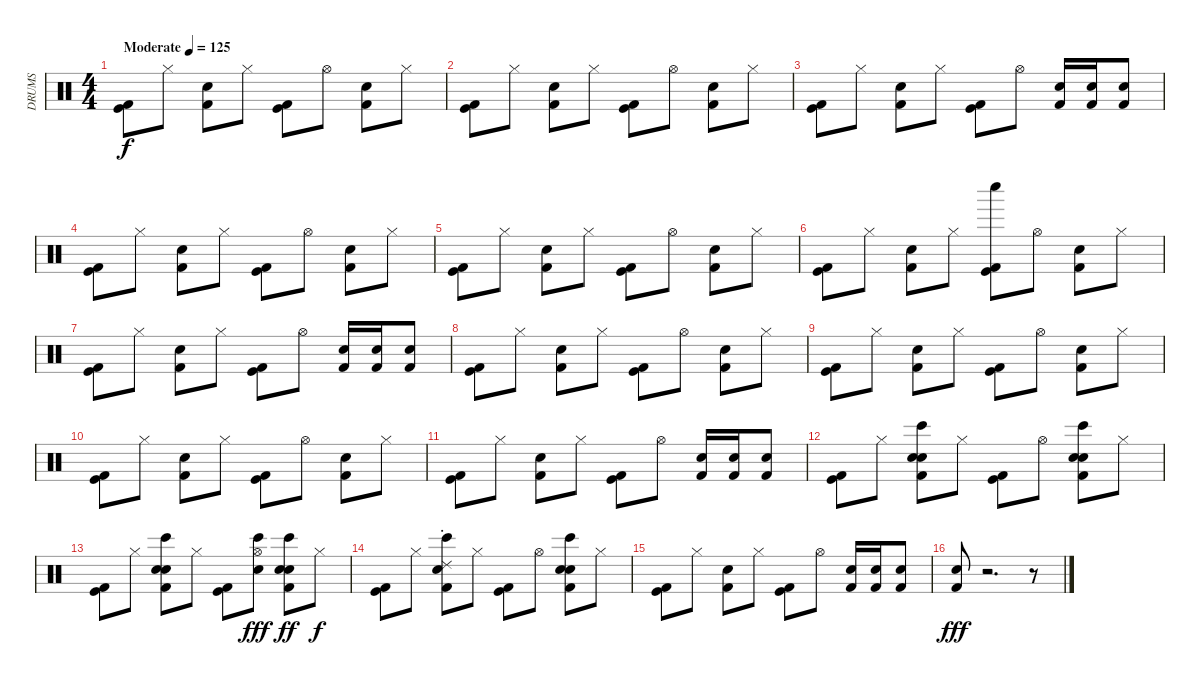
\track ("DRUMS" "DRUMS") {instrument percussion}
\staff {score}
\articulation defaults
\ts (4 4)
\tempo (125 "Moderate")
\clef neutral
\ks c
("Kick (hit) 2" "Kick (hit)").8{dy f} "Hi-Hat (closed)".8 ("Electric Snare (hit)" "Kick (hit) 2").8 "Hi-Hat (closed)".8 ("Kick (hit) 2" "Kick (hit)").8 "Hi-Hat (open)".8 ("Electric Snare (hit)" "Kick (hit) 2").8 "Hi-Hat (closed)".8 |
("Kick (hit) 2" "Kick (hit)").8 "Hi-Hat (closed)".8 ("Electric Snare (hit)" "Kick (hit) 2").8 "Hi-Hat (closed)".8 ("Kick (hit) 2" "Kick (hit)").8 "Hi-Hat (open)".8 ("Electric Snare (hit)" "Kick (hit) 2").8 "Hi-Hat (closed)".8 |
("Kick (hit) 2" "Kick (hit)").8 "Hi-Hat (closed)".8 ("Electric Snare (hit)" "Kick (hit) 2").8 "Hi-Hat (closed)".8 ("Kick (hit) 2" "Kick (hit)").8 "Hi-Hat (open)".8 ("Electric Snare (hit)" "Kick (hit) 2").16 ("Electric Snare (hit)" "Kick (hit) 2").16 ("Electric Snare (hit)" "Kick (hit) 2").8 |
("Kick (hit) 2" "Kick (hit)").8 "Hi-Hat (closed)".8 ("Electric Snare (hit)" "Kick (hit) 2").8 "Hi-Hat (closed)".8 ("Kick (hit) 2" "Kick (hit)").8 "Hi-Hat (open)".8 ("Electric Snare (hit)" "Kick (hit) 2").8 "Hi-Hat (closed)".8 |
("Kick (hit) 2" "Kick (hit)").8 "Hi-Hat (closed)".8 ("Electric Snare (hit)" "Kick (hit) 2").8 "Hi-Hat (closed)".8 ("Kick (hit) 2" "Kick (hit)").8 "Hi-Hat (open)".8 ("Electric Snare (hit)" "Kick (hit) 2").8 "Hi-Hat (closed)".8 |
("Kick (hit) 2" "Kick (hit)").8 "Hi-Hat (closed)".8 ("Electric Snare (hit)" "Kick (hit) 2").8 "Hi-Hat (closed)".8 ("Whistle low (hit)" "Kick (hit) 2" "Kick (hit)").8 "Hi-Hat (open)".8 ("Electric Snare (hit)" "Kick (hit) 2").8 "Hi-Hat (closed)".8 |
("Kick (hit) 2" "Kick (hit)").8 "Hi-Hat (closed)".8 ("Electric Snare (hit)" "Kick (hit) 2").8 "Hi-Hat (closed)".8 ("Kick (hit) 2" "Kick (hit)").8 "Hi-Hat (open)".8 ("Electric Snare (hit)" "Kick (hit) 2").16 ("Electric Snare (hit)" "Kick (hit) 2").16 ("Electric Snare (hit)" "Kick (hit) 2").8 |
("Kick (hit) 2" "Kick (hit)").8 "Hi-Hat (closed)".8 ("Electric Snare (hit)" "Kick (hit) 2").8 "Hi-Hat (closed)".8 ("Kick (hit) 2" "Kick (hit)").8 "Hi-Hat (open)".8 ("Electric Snare (hit)" "Kick (hit) 2").8 "Hi-Hat (closed)".8 |
("Kick (hit) 2" "Kick (hit)").8 "Hi-Hat (closed)".8 ("Electric Snare (hit)" "Kick (hit) 2").8 "Hi-Hat (closed)".8 ("Kick (hit) 2" "Kick (hit)").8 "Hi-Hat (open)".8 ("Electric Snare (hit)" "Kick (hit) 2").8 "Hi-Hat (closed)".8 |
("Kick (hit) 2" "Kick (hit)").8 "Hi-Hat (closed)".8 ("Electric Snare (hit)" "Kick (hit) 2").8 "Hi-Hat (closed)".8 ("Kick (hit) 2" "Kick (hit)").8 "Hi-Hat (open)".8 ("Electric Snare (hit)" "Kick (hit) 2").8 "Hi-Hat (closed)".8 |
("Kick (hit) 2" "Kick (hit)").8 "Hi-Hat (closed)".8 ("Electric Snare (hit)" "Kick (hit) 2").8 "Hi-Hat (closed)".8 ("Kick (hit) 2" "Kick (hit)").8 "Hi-Hat (open)".8 ("Electric Snare (hit)" "Kick (hit) 2").16 ("Electric Snare (hit)" "Kick (hit) 2").16 ("Electric Snare (hit)" "Kick (hit) 2").8 |
("Kick (hit) 2" "Kick (hit)").8 "Hi-Hat (closed)".8 ("Bongo High (hit)" "Hand Clap (hit)" "Electric Snare (hit)" "Kick (hit) 2").8 "Hi-Hat (closed)".8 ("Kick (hit) 2" "Kick (hit)").8 "Hi-Hat (open)".8 ("Bongo High (hit)" "Hand Clap (hit)" "Electric Snare (hit)" "Kick (hit) 2").8 "Hi-Hat (closed)".8 |
("Kick (hit) 2" "Kick (hit)").8 "Hi-Hat (closed)".8 ("Bongo High (hit)" "Hand Clap (hit)" "Electric Snare (hit)" "Kick (hit) 2").8 "Hi-Hat (closed)".8 ("Kick (hit) 2" "Kick (hit)").8 ("Bongo High (hit)" "Hi-Hat (open)" "Hand Clap (hit)").8{dy fff} ("Bongo High (hit)" "Hand Clap (hit)" "Electric Snare (hit)" "Kick (hit) 2").8{dy ff} "Hi-Hat (closed)".8{dy f} |
("Kick (hit) 2" "Kick (hit)").8 "Hi-Hat (closed)".8 ("Bongo High (hit)" "Ride (choke) 2" "Electric Snare (hit)" "Kick (hit) 2").8 "Hi-Hat (closed)".8 ("Kick (hit) 2" "Kick (hit)").8 "Hi-Hat (open)".8 ("Hand Clap (hit)" "Bongo High (hit)" "Electric Snare (hit)" "Kick (hit) 2").8 "Hi-Hat (closed)".8 |
("Kick (hit) 2" "Kick (hit)").8 "Hi-Hat (closed)".8 ("Electric Snare (hit)" "Kick (hit) 2").8 "Hi-Hat (closed)".8 ("Kick (hit) 2" "Kick (hit)").8 "Hi-Hat (open)".8 ("Electric Snare (hit)" "Kick (hit) 2").16 ("Electric Snare (hit)" "Kick (hit) 2").16 ("Electric Snare (hit)" "Kick (hit) 2").8 |
("Electric Snare (hit)" "Kick (hit) 2").8{dy fff} r.2{d} r.8
